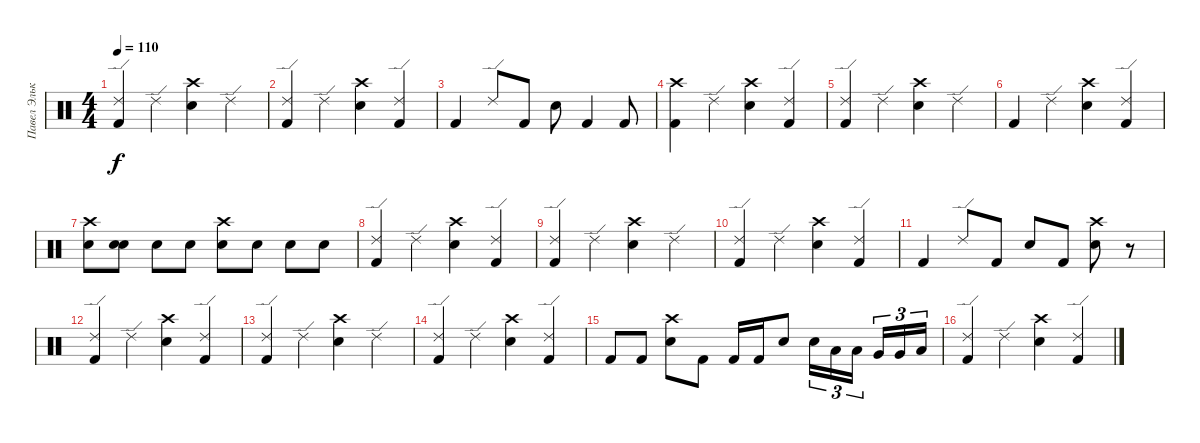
\track ("Павел Элькинд" "Павел Эльк") {instrument percussion}
\staff {score}
\articulation defaults
\ts (4 4)
\tempo 110
\clef neutral
\ks c
("Kick (hit) 2" "Ride (edge) 2").4{dy f} "Ride (edge) 2".4 ("Electric Snare (hit)" "Crash high (hit)").4 "Ride (edge) 2".4 |
("Kick (hit) 2" "Ride (edge) 2").4 "Ride (edge) 2".4 ("Electric Snare (hit)" "Crash high (hit)").4 ("Kick (hit) 2" "Ride (edge) 2").4 |
"Kick (hit) 2".4 "Ride (edge) 2".8 "Kick (hit) 2".8 "Electric Snare (hit)".8 "Kick (hit) 2".4 "Kick (hit) 2".8 |
("Kick (hit) 2" "Crash high (hit)").4 "Ride (edge) 2".4 ("Electric Snare (hit)" "Crash high (hit)").4 ("Kick (hit) 2" "Ride (edge) 2").4 |
("Kick (hit) 2" "Ride (edge) 2").4 "Ride (edge) 2".4 ("Electric Snare (hit)" "Crash high (hit)").4 "Ride (edge) 2".4 |
"Kick (hit) 2".4 "Ride (edge) 2".4 ("Electric Snare (hit)" "Crash high (hit)").4 ("Kick (hit) 2" "Ride (edge) 2").4 |
("Electric Snare (hit)" "Crash high (hit)").8 ("Electric Snare (hit)" "Electric Snare (hit)").8 "Electric Snare (hit)".8 "Electric Snare (hit)".8 ("Electric Snare (hit)" "Crash high (hit)").8 "Electric Snare (hit)".8 "Electric Snare (hit)".8 "Electric Snare (hit)".8 |
("Kick (hit) 2" "Ride (edge) 2").4 "Ride (edge) 2".4 ("Electric Snare (hit)" "Crash high (hit)").4 ("Kick (hit) 2" "Ride (edge) 2").4 |
("Kick (hit) 2" "Ride (edge) 2").4 "Ride (edge) 2".4 ("Electric Snare (hit)" "Crash high (hit)").4 "Ride (edge) 2".4 |
("Kick (hit) 2" "Ride (edge) 2").4 "Ride (edge) 2".4 ("Electric Snare (hit)" "Crash high (hit)").4 ("Kick (hit) 2" "Ride (edge) 2").4 |
"Kick (hit) 2".4 "Ride (edge) 2".8 "Kick (hit) 2".8 "Electric Snare (hit)".8 "Kick (hit) 2".8 ("Electric Snare (hit)" "Crash high (hit)").8 r.8 |
("Kick (hit) 2" "Ride (edge) 2").4 "Ride (edge) 2".4 ("Electric Snare (hit)" "Crash high (hit)").4 ("Kick (hit) 2" "Ride (edge) 2").4 |
("Kick (hit) 2" "Ride (edge) 2").4 "Ride (edge) 2".4 ("Electric Snare (hit)" "Crash high (hit)").4 "Ride (edge) 2".4 |
("Kick (hit) 2" "Ride (edge) 2").4 "Ride (edge) 2".4 ("Electric Snare (hit)" "Crash high (hit)").4 ("Kick (hit) 2" "Ride (edge) 2").4 |
"Kick (hit) 2".8 "Kick (hit) 2".8 ("Electric Snare (hit)" "Crash high (hit)").8 "Kick (hit) 2".8 "Kick (hit) 2".16 "Kick (hit) 2".16 "Electric Snare (hit)".8 "Electric Snare (hit)".16{tu (3 2)} "Low Tom (hit)".16{tu (3 2)} "Low Tom (hit)".16{tu (3 2) beam splitsecondary} "Very Low Tom (hit)".16{tu (3 2)} "Very Low Tom (hit)".16{tu (3 2)} "Low Floor Tom (hit)".16{tu (3 2)} |
("Kick (hit) 2" "Ride (edge) 2").4 "Ride (edge) 2".4 ("Electric Snare (hit)" "Crash high (hit)").4 ("Kick (hit) 2" "Ride (edge) 2").4
